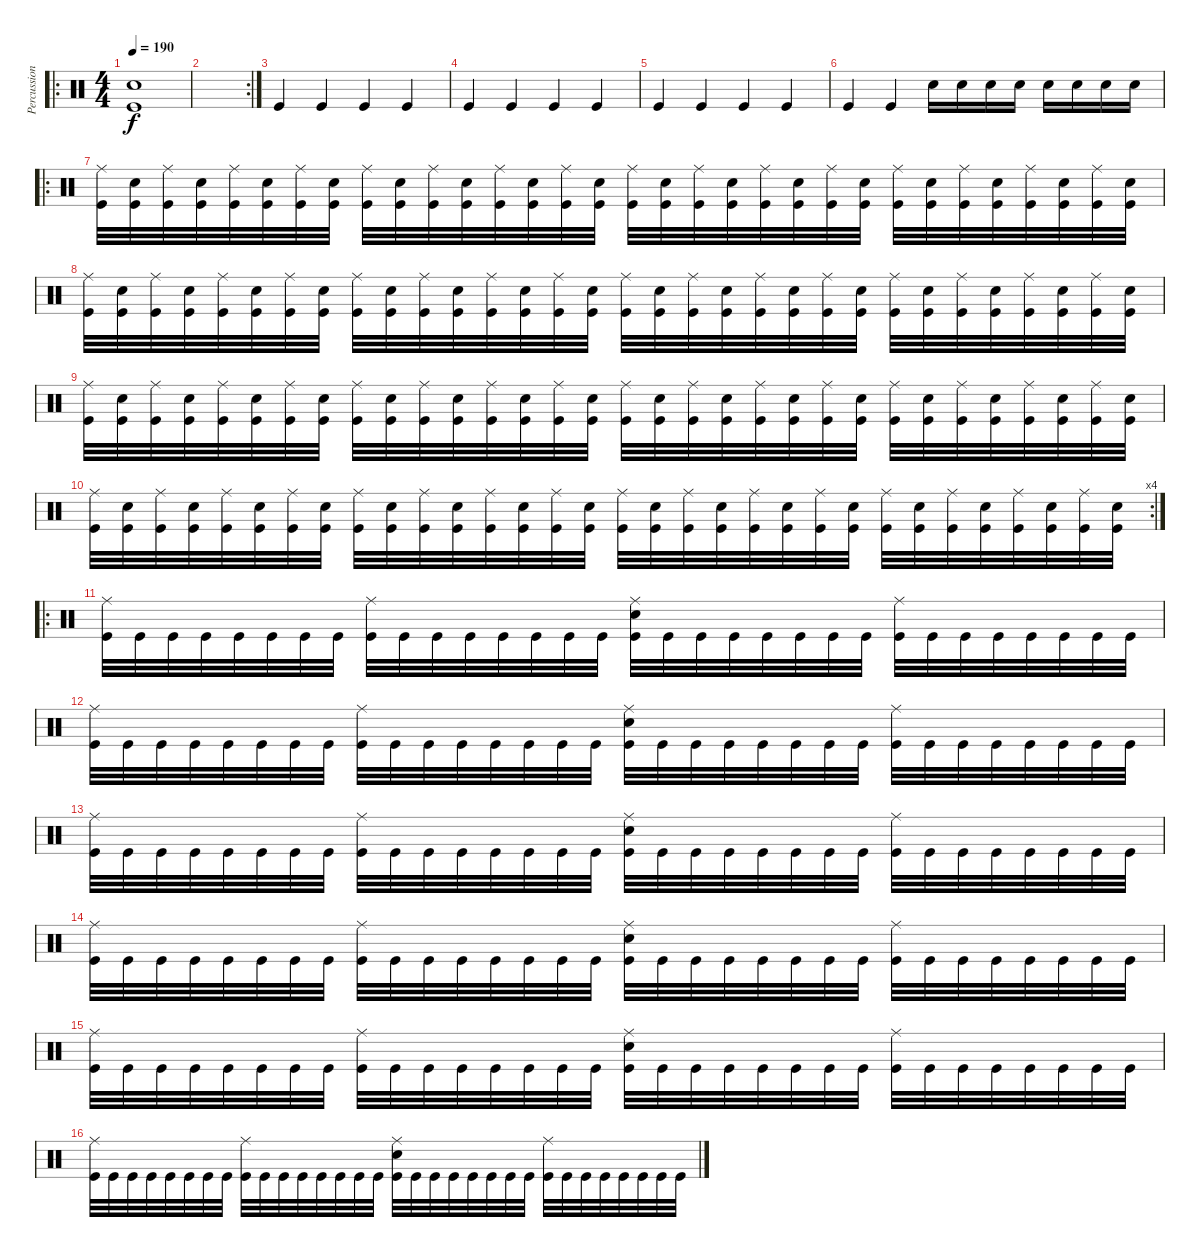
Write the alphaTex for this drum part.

\track ("Percussion" "Percussion") {instrument percussion}
\staff {score}
\articulation defaults
\ro
\ts (4 4)
\tempo 190
\clef neutral
\ks c
("Snare (hit) 2" "Kick (hit)").1{dy f} |
\rc 2
|
"Kick (hit)".4 "Kick (hit)".4 "Kick (hit)".4 "Kick (hit)".4 |
"Kick (hit)".4 "Kick (hit)".4 "Kick (hit)".4 "Kick (hit)".4 |
"Kick (hit)".4 "Kick (hit)".4 "Kick (hit)".4 "Kick (hit)".4 |
"Kick (hit)".4 "Kick (hit)".4 "Snare (hit) 2".16 "Snare (hit) 2".16 "Snare (hit) 2".16 "Snare (hit) 2".16 "Snare (hit) 2".16 "Snare (hit) 2".16 "Snare (hit) 2".16 "Snare (hit) 2".16 |
\ro
("Ride (middle)" "Kick (hit)").32 ("Snare (hit) 2" "Kick (hit)").32 ("Ride (middle)" "Kick (hit)").32 ("Snare (hit) 2" "Kick (hit)").32 ("Ride (middle)" "Kick (hit)").32 ("Snare (hit) 2" "Kick (hit)").32 ("Ride (middle)" "Kick (hit)").32 ("Snare (hit) 2" "Kick (hit)").32 ("Ride (middle)" "Kick (hit)").32 ("Snare (hit) 2" "Kick (hit)").32 ("Ride (middle)" "Kick (hit)").32 ("Snare (hit) 2" "Kick (hit)").32 ("Ride (middle)" "Kick (hit)").32 ("Snare (hit) 2" "Kick (hit)").32 ("Ride (middle)" "Kick (hit)").32 ("Snare (hit) 2" "Kick (hit)").32 ("Ride (middle)" "Kick (hit)").32 ("Snare (hit) 2" "Kick (hit)").32 ("Ride (middle)" "Kick (hit)").32 ("Snare (hit) 2" "Kick (hit)").32 ("Ride (middle)" "Kick (hit)").32 ("Snare (hit) 2" "Kick (hit)").32 ("Ride (middle)" "Kick (hit)").32 ("Snare (hit) 2" "Kick (hit)").32 ("Ride (middle)" "Kick (hit)").32 ("Snare (hit) 2" "Kick (hit)").32 ("Ride (middle)" "Kick (hit)").32 ("Snare (hit) 2" "Kick (hit)").32 ("Ride (middle)" "Kick (hit)").32 ("Snare (hit) 2" "Kick (hit)").32 ("Ride (middle)" "Kick (hit)").32 ("Snare (hit) 2" "Kick (hit)").32 |
("Ride (middle)" "Kick (hit)").32 ("Snare (hit) 2" "Kick (hit)").32 ("Ride (middle)" "Kick (hit)").32 ("Snare (hit) 2" "Kick (hit)").32 ("Ride (middle)" "Kick (hit)").32 ("Snare (hit) 2" "Kick (hit)").32 ("Ride (middle)" "Kick (hit)").32 ("Snare (hit) 2" "Kick (hit)").32 ("Ride (middle)" "Kick (hit)").32 ("Snare (hit) 2" "Kick (hit)").32 ("Ride (middle)" "Kick (hit)").32 ("Snare (hit) 2" "Kick (hit)").32 ("Ride (middle)" "Kick (hit)").32 ("Snare (hit) 2" "Kick (hit)").32 ("Ride (middle)" "Kick (hit)").32 ("Snare (hit) 2" "Kick (hit)").32 ("Ride (middle)" "Kick (hit)").32 ("Snare (hit) 2" "Kick (hit)").32 ("Ride (middle)" "Kick (hit)").32 ("Snare (hit) 2" "Kick (hit)").32 ("Ride (middle)" "Kick (hit)").32 ("Snare (hit) 2" "Kick (hit)").32 ("Ride (middle)" "Kick (hit)").32 ("Snare (hit) 2" "Kick (hit)").32 ("Ride (middle)" "Kick (hit)").32 ("Snare (hit) 2" "Kick (hit)").32 ("Ride (middle)" "Kick (hit)").32 ("Snare (hit) 2" "Kick (hit)").32 ("Ride (middle)" "Kick (hit)").32 ("Snare (hit) 2" "Kick (hit)").32 ("Ride (middle)" "Kick (hit)").32 ("Snare (hit) 2" "Kick (hit)").32 |
("Ride (middle)" "Kick (hit)").32 ("Snare (hit) 2" "Kick (hit)").32 ("Ride (middle)" "Kick (hit)").32 ("Snare (hit) 2" "Kick (hit)").32 ("Ride (middle)" "Kick (hit)").32 ("Snare (hit) 2" "Kick (hit)").32 ("Ride (middle)" "Kick (hit)").32 ("Snare (hit) 2" "Kick (hit)").32 ("Ride (middle)" "Kick (hit)").32 ("Snare (hit) 2" "Kick (hit)").32 ("Ride (middle)" "Kick (hit)").32 ("Snare (hit) 2" "Kick (hit)").32 ("Ride (middle)" "Kick (hit)").32 ("Snare (hit) 2" "Kick (hit)").32 ("Ride (middle)" "Kick (hit)").32 ("Snare (hit) 2" "Kick (hit)").32 ("Ride (middle)" "Kick (hit)").32 ("Snare (hit) 2" "Kick (hit)").32 ("Ride (middle)" "Kick (hit)").32 ("Snare (hit) 2" "Kick (hit)").32 ("Ride (middle)" "Kick (hit)").32 ("Snare (hit) 2" "Kick (hit)").32 ("Ride (middle)" "Kick (hit)").32 ("Snare (hit) 2" "Kick (hit)").32 ("Ride (middle)" "Kick (hit)").32 ("Snare (hit) 2" "Kick (hit)").32 ("Ride (middle)" "Kick (hit)").32 ("Snare (hit) 2" "Kick (hit)").32 ("Ride (middle)" "Kick (hit)").32 ("Snare (hit) 2" "Kick (hit)").32 ("Ride (middle)" "Kick (hit)").32 ("Snare (hit) 2" "Kick (hit)").32 |
\rc 4
("Ride (middle)" "Kick (hit)").32 ("Snare (hit) 2" "Kick (hit)").32 ("Ride (middle)" "Kick (hit)").32 ("Snare (hit) 2" "Kick (hit)").32 ("Ride (middle)" "Kick (hit)").32 ("Snare (hit) 2" "Kick (hit)").32 ("Ride (middle)" "Kick (hit)").32 ("Snare (hit) 2" "Kick (hit)").32 ("Ride (middle)" "Kick (hit)").32 ("Snare (hit) 2" "Kick (hit)").32 ("Ride (middle)" "Kick (hit)").32 ("Snare (hit) 2" "Kick (hit)").32 ("Ride (middle)" "Kick (hit)").32 ("Snare (hit) 2" "Kick (hit)").32 ("Ride (middle)" "Kick (hit)").32 ("Snare (hit) 2" "Kick (hit)").32 ("Ride (middle)" "Kick (hit)").32 ("Snare (hit) 2" "Kick (hit)").32 ("Ride (middle)" "Kick (hit)").32 ("Snare (hit) 2" "Kick (hit)").32 ("Ride (middle)" "Kick (hit)").32 ("Snare (hit) 2" "Kick (hit)").32 ("Ride (middle)" "Kick (hit)").32 ("Snare (hit) 2" "Kick (hit)").32 ("Ride (middle)" "Kick (hit)").32 ("Snare (hit) 2" "Kick (hit)").32 ("Ride (middle)" "Kick (hit)").32 ("Snare (hit) 2" "Kick (hit)").32 ("Ride (middle)" "Kick (hit)").32 ("Snare (hit) 2" "Kick (hit)").32 ("Ride (middle)" "Kick (hit)").32 ("Snare (hit) 2" "Kick (hit)").32 |
\ro
("Ride (middle)" "Kick (hit)").32 "Kick (hit)".32 "Kick (hit)".32 "Kick (hit)".32 "Kick (hit)".32 "Kick (hit)".32 "Kick (hit)".32 "Kick (hit)".32 ("Ride (middle)" "Kick (hit)").32 "Kick (hit)".32 "Kick (hit)".32 "Kick (hit)".32 "Kick (hit)".32 "Kick (hit)".32 "Kick (hit)".32 "Kick (hit)".32 ("Ride (middle)" "Snare (hit) 2" "Kick (hit)").32 "Kick (hit)".32 "Kick (hit)".32 "Kick (hit)".32 "Kick (hit)".32 "Kick (hit)".32 "Kick (hit)".32 "Kick (hit)".32 ("Ride (middle)" "Kick (hit)").32 "Kick (hit)".32 "Kick (hit)".32 "Kick (hit)".32 "Kick (hit)".32 "Kick (hit)".32 "Kick (hit)".32 "Kick (hit)".32 |
("Ride (middle)" "Kick (hit)").32 "Kick (hit)".32 "Kick (hit)".32 "Kick (hit)".32 "Kick (hit)".32 "Kick (hit)".32 "Kick (hit)".32 "Kick (hit)".32 ("Ride (middle)" "Kick (hit)").32 "Kick (hit)".32 "Kick (hit)".32 "Kick (hit)".32 "Kick (hit)".32 "Kick (hit)".32 "Kick (hit)".32 "Kick (hit)".32 ("Ride (middle)" "Snare (hit) 2" "Kick (hit)").32 "Kick (hit)".32 "Kick (hit)".32 "Kick (hit)".32 "Kick (hit)".32 "Kick (hit)".32 "Kick (hit)".32 "Kick (hit)".32 ("Ride (middle)" "Kick (hit)").32 "Kick (hit)".32 "Kick (hit)".32 "Kick (hit)".32 "Kick (hit)".32 "Kick (hit)".32 "Kick (hit)".32 "Kick (hit)".32 |
("Ride (middle)" "Kick (hit)").32 "Kick (hit)".32 "Kick (hit)".32 "Kick (hit)".32 "Kick (hit)".32 "Kick (hit)".32 "Kick (hit)".32 "Kick (hit)".32 ("Ride (middle)" "Kick (hit)").32 "Kick (hit)".32 "Kick (hit)".32 "Kick (hit)".32 "Kick (hit)".32 "Kick (hit)".32 "Kick (hit)".32 "Kick (hit)".32 ("Ride (middle)" "Snare (hit) 2" "Kick (hit)").32 "Kick (hit)".32 "Kick (hit)".32 "Kick (hit)".32 "Kick (hit)".32 "Kick (hit)".32 "Kick (hit)".32 "Kick (hit)".32 ("Ride (middle)" "Kick (hit)").32 "Kick (hit)".32 "Kick (hit)".32 "Kick (hit)".32 "Kick (hit)".32 "Kick (hit)".32 "Kick (hit)".32 "Kick (hit)".32 |
("Ride (middle)" "Kick (hit)").32 "Kick (hit)".32 "Kick (hit)".32 "Kick (hit)".32 "Kick (hit)".32 "Kick (hit)".32 "Kick (hit)".32 "Kick (hit)".32 ("Ride (middle)" "Kick (hit)").32 "Kick (hit)".32 "Kick (hit)".32 "Kick (hit)".32 "Kick (hit)".32 "Kick (hit)".32 "Kick (hit)".32 "Kick (hit)".32 ("Ride (middle)" "Snare (hit) 2" "Kick (hit)").32 "Kick (hit)".32 "Kick (hit)".32 "Kick (hit)".32 "Kick (hit)".32 "Kick (hit)".32 "Kick (hit)".32 "Kick (hit)".32 ("Ride (middle)" "Kick (hit)").32 "Kick (hit)".32 "Kick (hit)".32 "Kick (hit)".32 "Kick (hit)".32 "Kick (hit)".32 "Kick (hit)".32 "Kick (hit)".32 |
("Ride (middle)" "Kick (hit)").32 "Kick (hit)".32 "Kick (hit)".32 "Kick (hit)".32 "Kick (hit)".32 "Kick (hit)".32 "Kick (hit)".32 "Kick (hit)".32 ("Ride (middle)" "Kick (hit)").32 "Kick (hit)".32 "Kick (hit)".32 "Kick (hit)".32 "Kick (hit)".32 "Kick (hit)".32 "Kick (hit)".32 "Kick (hit)".32 ("Ride (middle)" "Snare (hit) 2" "Kick (hit)").32 "Kick (hit)".32 "Kick (hit)".32 "Kick (hit)".32 "Kick (hit)".32 "Kick (hit)".32 "Kick (hit)".32 "Kick (hit)".32 ("Ride (middle)" "Kick (hit)").32 "Kick (hit)".32 "Kick (hit)".32 "Kick (hit)".32 "Kick (hit)".32 "Kick (hit)".32 "Kick (hit)".32 "Kick (hit)".32 |
("Ride (middle)" "Kick (hit)").32 "Kick (hit)".32 "Kick (hit)".32 "Kick (hit)".32 "Kick (hit)".32 "Kick (hit)".32 "Kick (hit)".32 "Kick (hit)".32 ("Ride (middle)" "Kick (hit)").32 "Kick (hit)".32 "Kick (hit)".32 "Kick (hit)".32 "Kick (hit)".32 "Kick (hit)".32 "Kick (hit)".32 "Kick (hit)".32 ("Ride (middle)" "Snare (hit) 2" "Kick (hit)").32 "Kick (hit)".32 "Kick (hit)".32 "Kick (hit)".32 "Kick (hit)".32 "Kick (hit)".32 "Kick (hit)".32 "Kick (hit)".32 ("Ride (middle)" "Kick (hit)").32 "Kick (hit)".32 "Kick (hit)".32 "Kick (hit)".32 "Kick (hit)".32 "Kick (hit)".32 "Kick (hit)".32 "Kick (hit)".32
